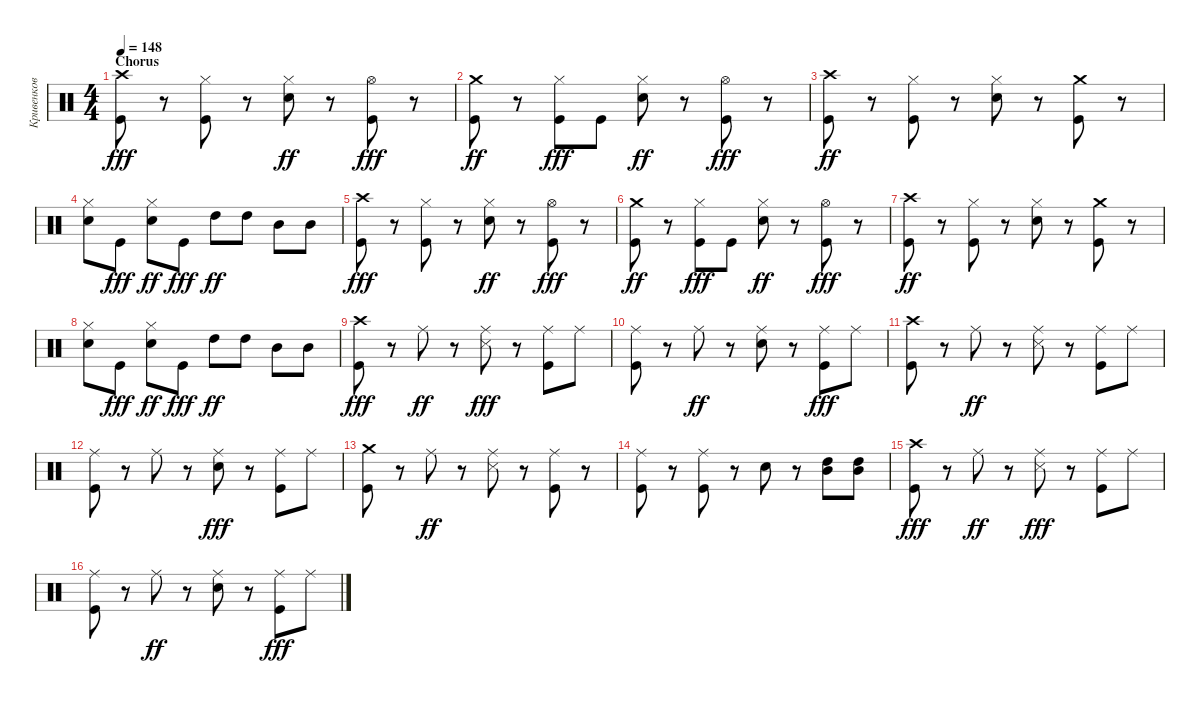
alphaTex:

\track ("Кривенков" "Кривенков") {instrument percussion}
\staff {score}
\articulation defaults
\ts (4 4)
\section ("" "Chorus")
\tempo 148
\clef neutral
\ks c
("Crash high (hit)" "Kick (hit)").8{dy fff} r.8 ("Hi-Hat (closed)" "Kick (hit)").8 r.8 ("Hi-Hat (closed)" "Snare (hit) 2").8{dy ff} r.8 ("Hi-Hat (open)" "Kick (hit)").8{dy fff} r.8 |
("Kick (hit)" "Crash medium (hit)").8{dy ff} r.8 ("Hi-Hat (closed)" "Kick (hit)").8{dy fff} "Kick (hit)".8 ("Hi-Hat (closed)" "Snare (hit) 2").8{dy ff} r.8 ("Hi-Hat (open)" "Kick (hit)").8{dy fff} r.8 |
("Kick (hit)" "Crash high (hit)").8{dy ff} r.8 ("Kick (hit)" "Hi-Hat (closed)").8 r.8 ("Snare (hit) 2" "Hi-Hat (closed)").8 r.8 ("Kick (hit)" "Crash medium (hit)").8 r.8 |
("Hi-Hat (closed)" "Snare (hit) 2").8 "Kick (hit)".8{dy fff} ("Hi-Hat (closed)" "Snare (hit) 2").8{dy ff} "Kick (hit)".8{dy fff} "High Tom (hit)".8{dy ff} "High Tom (hit)".8 "Mid Tom (hit)".8 "Mid Tom (hit)".8 |
("Crash high (hit)" "Kick (hit)").8{dy fff} r.8 ("Hi-Hat (closed)" "Kick (hit)").8 r.8 ("Hi-Hat (closed)" "Snare (hit) 2").8{dy ff} r.8 ("Hi-Hat (open)" "Kick (hit)").8{dy fff} r.8 |
("Kick (hit)" "Crash medium (hit)").8{dy ff} r.8 ("Hi-Hat (closed)" "Kick (hit)").8{dy fff} "Kick (hit)".8 ("Hi-Hat (closed)" "Snare (hit) 2").8{dy ff} r.8 ("Hi-Hat (open)" "Kick (hit)").8{dy fff} r.8 |
("Kick (hit)" "Crash high (hit)").8{dy ff} r.8 ("Kick (hit)" "Hi-Hat (closed)").8 r.8 ("Snare (hit) 2" "Hi-Hat (closed)").8 r.8 ("Kick (hit)" "Crash medium (hit)").8 r.8 |
("Hi-Hat (closed)" "Snare (hit) 2").8 "Kick (hit)".8{dy fff} ("Hi-Hat (closed)" "Snare (hit) 2").8{dy ff} "Kick (hit)".8{dy fff} "High Tom (hit)".8{dy ff} "High Tom (hit)".8 "Mid Tom (hit)".8 "Mid Tom (hit)".8 |
("Kick (hit)" "Crash high (hit)").8{dy fff} r.8 "Ride (middle)".8{dy ff} r.8 ("Snare (side stick) 3" "Ride (middle)").8{dy fff} r.8 ("Kick (hit)" "Ride (middle)").8 "Ride (middle)".8 |
("Kick (hit)" "Ride (middle)").8 r.8 "Ride (middle)".8{dy ff} r.8 ("Ride (middle)" "Snare (hit) 2").8 r.8 ("Kick (hit)" "Ride (middle)").8{dy fff} "Ride (middle)".8 |
("Kick (hit)" "Crash high (hit)").8 r.8 "Ride (middle)".8{dy ff} r.8 ("Ride (middle)" "Snare (side stick) 3").8 r.8 ("Kick (hit)" "Ride (middle)").8 "Ride (middle)".8 |
("Kick (hit)" "Ride (middle)").8 r.8 "Ride (middle)".8 r.8 ("Ride (middle)" "Snare (hit) 2").8{dy fff} r.8 ("Ride (middle)" "Kick (hit)").8 "Ride (middle)".8 |
("Crash medium (hit)" "Kick (hit)").8 r.8 "Ride (middle)".8{dy ff} r.8 ("Snare (side stick) 3" "Ride (middle)").8 r.8 ("Kick (hit)" "Ride (middle)").8 r.8 |
("Kick (hit)" "Ride (middle)").8 r.8 ("Kick (hit)" "Ride (middle)").8 r.8 "Snare (hit) 2".8 r.8 ("Mid Tom (hit)" "High Tom (hit)").8 ("Mid Tom (hit)" "High Tom (hit)").8 |
("Kick (hit)" "Crash high (hit)").8{dy fff} r.8 "Ride (middle)".8{dy ff} r.8 ("Snare (side stick) 3" "Ride (middle)").8{dy fff} r.8 ("Kick (hit)" "Ride (middle)").8 "Ride (middle)".8 |
("Kick (hit)" "Ride (middle)").8 r.8 "Ride (middle)".8{dy ff} r.8 ("Ride (middle)" "Snare (hit) 2").8 r.8 ("Kick (hit)" "Ride (middle)").8{dy fff} "Ride (middle)".8
